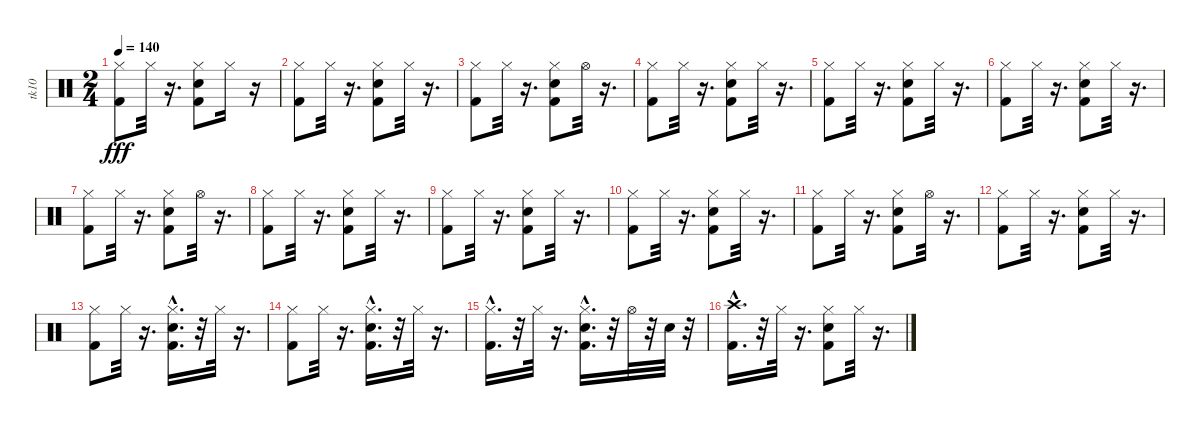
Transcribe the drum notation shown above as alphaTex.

\track ("tk10" "tk10") {instrument percussion}
\staff {score}
\articulation defaults
\ts (2 4)
\tempo 140
\clef neutral
\ks c
("Kick (hit) 2" "Hi-Hat (closed)").8{dy fff} "Hi-Hat (closed)".32 r.16{d} ("Snare (hit) 2" "Kick (hit) 2" "Hi-Hat (closed)").8 "Hi-Hat (closed)".16 r.16 |
("Kick (hit) 2" "Hi-Hat (closed)").8 "Hi-Hat (closed)".32 r.16{d} ("Snare (hit) 2" "Kick (hit) 2" "Hi-Hat (closed)").8 "Hi-Hat (closed)".32 r.16{d} |
("Kick (hit) 2" "Hi-Hat (closed)").8 "Hi-Hat (closed)".32 r.16{d} ("Kick (hit) 2" "Snare (hit) 2" "Hi-Hat (closed)").8 "Hi-Hat (open)".32 r.16{d} |
("Kick (hit) 2" "Hi-Hat (closed)").8 "Hi-Hat (closed)".32 r.16{d} ("Kick (hit) 2" "Hi-Hat (closed)" "Snare (hit) 2").8 "Hi-Hat (closed)".32 r.16{d} |
("Kick (hit) 2" "Hi-Hat (closed)").8 "Hi-Hat (closed)".32 r.16{d} ("Snare (hit) 2" "Kick (hit) 2" "Hi-Hat (closed)").8 "Hi-Hat (closed)".32 r.16{d} |
("Kick (hit) 2" "Hi-Hat (closed)").8 "Hi-Hat (closed)".32 r.16{d} ("Snare (hit) 2" "Kick (hit) 2" "Hi-Hat (closed)").8 "Hi-Hat (closed)".32 r.16{d} |
("Kick (hit) 2" "Hi-Hat (closed)").8 "Hi-Hat (closed)".32 r.16{d} ("Kick (hit) 2" "Hi-Hat (closed)" "Snare (hit) 2").8 "Hi-Hat (open)".32 r.16{d} |
("Kick (hit) 2" "Hi-Hat (closed)").8 "Hi-Hat (closed)".32 r.16{d} ("Snare (hit) 2" "Kick (hit) 2" "Hi-Hat (closed)").8 "Hi-Hat (closed)".32 r.16{d} |
("Kick (hit) 2" "Hi-Hat (closed)").8 "Hi-Hat (closed)".32 r.16{d} ("Snare (hit) 2" "Kick (hit) 2" "Hi-Hat (closed)").8 "Hi-Hat (closed)".32 r.16{d} |
("Kick (hit) 2" "Hi-Hat (closed)").8 "Hi-Hat (closed)".32 r.16{d} ("Kick (hit) 2" "Hi-Hat (closed)" "Snare (hit) 2").8 "Hi-Hat (closed)".32 r.16{d} |
("Kick (hit) 2" "Hi-Hat (closed)").8 "Hi-Hat (closed)".32 r.16{d} ("Snare (hit) 2" "Kick (hit) 2" "Hi-Hat (closed)").8 "Hi-Hat (open)".32 r.16{d} |
("Kick (hit) 2" "Hi-Hat (closed)").8 "Hi-Hat (closed)".32 r.16{d} ("Snare (hit) 2" "Kick (hit) 2" "Hi-Hat (closed)").8 "Hi-Hat (closed)".32 r.16{d} |
("Kick (hit) 2" "Hi-Hat (closed)").8 "Hi-Hat (closed)".32 r.16{d} ("Snare (hit) 2"{hac} "Kick (hit) 2"{hac} "Hi-Hat (closed)").16{d} r.32 "Hi-Hat (closed)".32 r.16{d} |
("Kick (hit) 2" "Hi-Hat (closed)").8 "Hi-Hat (closed)".32 r.16{d} ("Hi-Hat (closed)" "Snare (hit) 2"{hac} "Kick (hit) 2"{hac}).16{d} r.32 "Hi-Hat (closed)".32 r.16{d} |
("Kick (hit) 2"{hac} "Hi-Hat (closed)").16{d} r.32 "Hi-Hat (closed)".32 r.16{d} ("Snare (hit) 2"{hac} "Kick (hit) 2"{hac} "Hi-Hat (closed)").16{d} r.32 "Hi-Hat (open)".32 r.32 "Snare (hit) 2".32 r.32 |
("Crash high (hit)" "Kick (hit) 2"{hac}).16{d} r.32 "Hi-Hat (closed)".32 r.16{d} ("Kick (hit) 2" "Snare (hit) 2" "Hi-Hat (closed)").8 "Hi-Hat (closed)".32 r.16{d}
